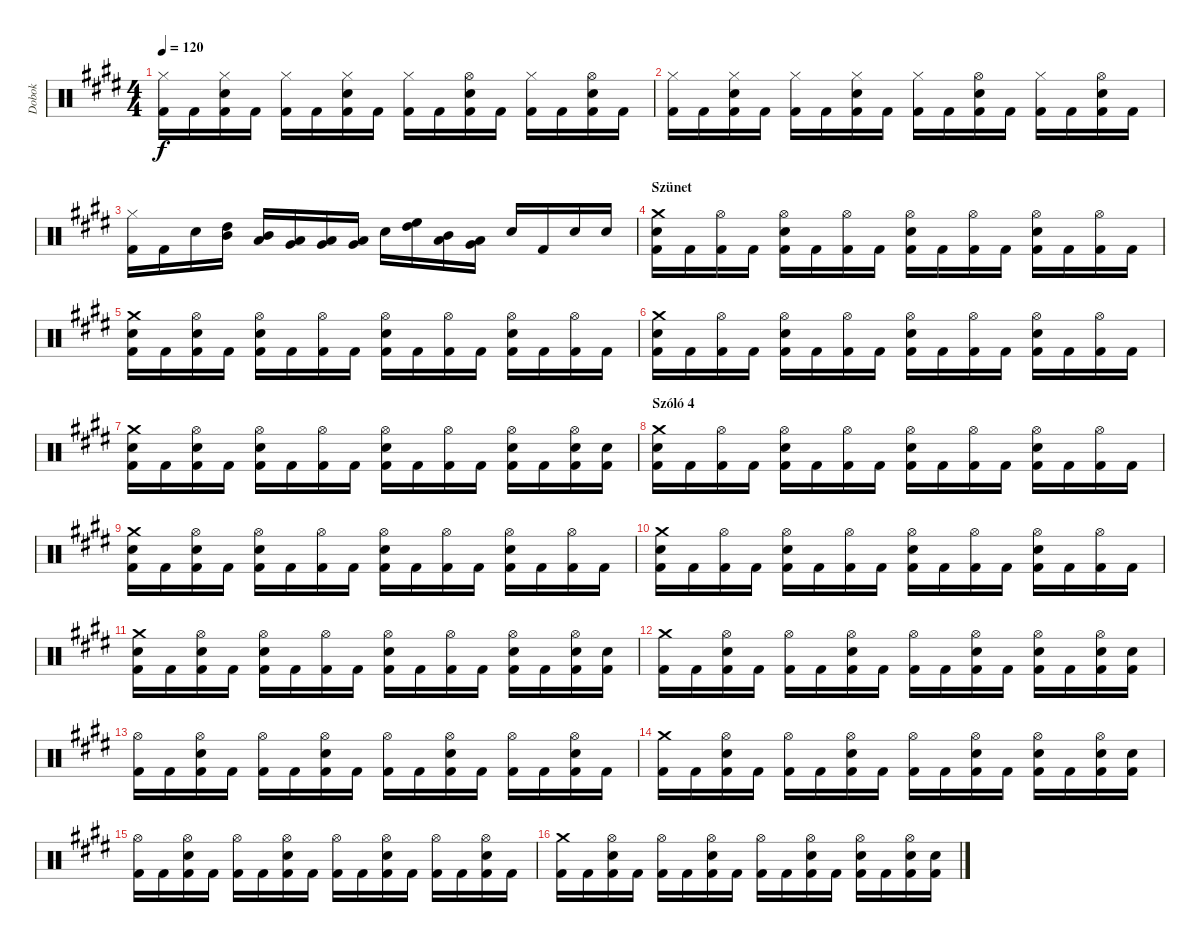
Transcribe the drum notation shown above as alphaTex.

\track ("Dobok" "Dobok") {instrument percussion}
\staff {score}
\articulation defaults
\ts (4 4)
\tempo 120
\clef neutral
\ks c#minor
("Hi-Hat (closed)" "Kick (hit) 2").16{dy f} "Kick (hit) 2".16 ("Hi-Hat (closed)" "Snare (hit) 2" "Kick (hit) 2").16 "Kick (hit) 2".16 ("Hi-Hat (closed)" "Kick (hit) 2").16 "Kick (hit) 2".16 ("Hi-Hat (closed)" "Snare (hit) 2" "Kick (hit) 2").16 "Kick (hit) 2".16 ("Hi-Hat (closed)" "Kick (hit) 2").16 "Kick (hit) 2".16 ("Hi-Hat (open)" "Snare (hit) 2" "Kick (hit) 2").16 "Kick (hit) 2".16 ("Hi-Hat (closed)" "Kick (hit) 2").16 "Kick (hit) 2".16 ("Hi-Hat (open)" "Snare (hit) 2" "Kick (hit) 2").16 "Kick (hit) 2".16 |
("Hi-Hat (closed)" "Kick (hit) 2").16 "Kick (hit) 2".16 ("Hi-Hat (closed)" "Snare (hit) 2" "Kick (hit) 2").16 "Kick (hit) 2".16 ("Hi-Hat (closed)" "Kick (hit) 2").16 "Kick (hit) 2".16 ("Hi-Hat (closed)" "Snare (hit) 2" "Kick (hit) 2").16 "Kick (hit) 2".16 ("Hi-Hat (closed)" "Kick (hit) 2").16 "Kick (hit) 2".16 ("Hi-Hat (open)" "Snare (hit) 2" "Kick (hit) 2").16 "Kick (hit) 2".16 ("Hi-Hat (closed)" "Kick (hit) 2").16 "Kick (hit) 2".16 ("Hi-Hat (open)" "Snare (hit) 2" "Kick (hit) 2").16 "Kick (hit) 2".16 |
("Hi-Hat (closed)" "Kick (hit) 2").16 "Kick (hit) 2".16 "Snare (hit) 2".16 ("High Tom (hit)" "Mid Tom (hit)").16 ("Mid Tom (hit)" "Low Tom (hit)").16 ("Low Tom (hit)" "Very Low Tom (hit)").16 ("Very Low Tom (hit)" "Low Floor Tom (hit)").16 ("Very Low Tom (hit)" "Low Floor Tom (hit)").16 "Snare (hit) 2".16 ("High Tom (hit)" "High Floor Tom (hit)").16 ("Low Tom (hit)" "Mid Tom (hit)").16 ("Very Low Tom (hit)" "Low Tom (hit)").16 "Snare (hit) 2".16 "Kick (hit) 2".16 "Snare (hit) 2".16 "Snare (hit) 2".16 |
\section ("" "Szünet")
("Crash medium (hit)" "Snare (hit) 2" "Kick (hit) 2").16 "Kick (hit) 2".16 ("Hi-Hat (open)" "Kick (hit) 2").16 "Kick (hit) 2".16 ("Hi-Hat (open)" "Snare (hit) 2" "Kick (hit) 2").16 "Kick (hit) 2".16 ("Hi-Hat (open)" "Kick (hit) 2").16 "Kick (hit) 2".16 ("Hi-Hat (open)" "Snare (hit) 2" "Kick (hit) 2").16 "Kick (hit) 2".16 ("Hi-Hat (open)" "Kick (hit) 2").16 "Kick (hit) 2".16 ("Hi-Hat (open)" "Snare (hit) 2" "Kick (hit) 2").16 "Kick (hit) 2".16 ("Hi-Hat (open)" "Kick (hit) 2").16 "Kick (hit) 2".16 |
("Crash medium (hit)" "Snare (hit) 2" "Kick (hit) 2").16 "Kick (hit) 2".16 ("Hi-Hat (open)" "Snare (hit) 2" "Kick (hit) 2").16 "Kick (hit) 2".16 ("Hi-Hat (open)" "Snare (hit) 2" "Kick (hit) 2").16 "Kick (hit) 2".16 ("Hi-Hat (open)" "Kick (hit) 2").16 "Kick (hit) 2".16 ("Hi-Hat (open)" "Snare (hit) 2" "Kick (hit) 2").16 "Kick (hit) 2".16 ("Hi-Hat (open)" "Kick (hit) 2").16 "Kick (hit) 2".16 ("Hi-Hat (open)" "Snare (hit) 2" "Kick (hit) 2").16 "Kick (hit) 2".16 ("Hi-Hat (open)" "Kick (hit) 2").16 "Kick (hit) 2".16 |
("Crash medium (hit)" "Snare (hit) 2" "Kick (hit) 2").16 "Kick (hit) 2".16 ("Hi-Hat (open)" "Kick (hit) 2").16 "Kick (hit) 2".16 ("Hi-Hat (open)" "Snare (hit) 2" "Kick (hit) 2").16 "Kick (hit) 2".16 ("Hi-Hat (open)" "Kick (hit) 2").16 "Kick (hit) 2".16 ("Hi-Hat (open)" "Snare (hit) 2" "Kick (hit) 2").16 "Kick (hit) 2".16 ("Hi-Hat (open)" "Kick (hit) 2").16 "Kick (hit) 2".16 ("Hi-Hat (open)" "Snare (hit) 2" "Kick (hit) 2").16 "Kick (hit) 2".16 ("Hi-Hat (open)" "Kick (hit) 2").16 "Kick (hit) 2".16 |
("Crash medium (hit)" "Snare (hit) 2" "Kick (hit) 2").16 "Kick (hit) 2".16 ("Hi-Hat (open)" "Snare (hit) 2" "Kick (hit) 2").16 "Kick (hit) 2".16 ("Hi-Hat (open)" "Snare (hit) 2" "Kick (hit) 2").16 "Kick (hit) 2".16 ("Hi-Hat (open)" "Kick (hit) 2").16 "Kick (hit) 2".16 ("Hi-Hat (open)" "Snare (hit) 2" "Kick (hit) 2").16 "Kick (hit) 2".16 ("Hi-Hat (open)" "Kick (hit) 2").16 "Kick (hit) 2".16 ("Hi-Hat (open)" "Snare (hit) 2" "Kick (hit) 2").16 "Kick (hit) 2".16 ("Hi-Hat (open)" "Snare (hit) 2" "Kick (hit) 2").16 ("Snare (hit) 2" "Kick (hit) 2").16 |
\section ("" "Szóló 4")
("Crash medium (hit)" "Snare (hit) 2" "Kick (hit) 2").16 "Kick (hit) 2".16 ("Hi-Hat (open)" "Kick (hit) 2").16 "Kick (hit) 2".16 ("Hi-Hat (open)" "Snare (hit) 2" "Kick (hit) 2").16 "Kick (hit) 2".16 ("Hi-Hat (open)" "Kick (hit) 2").16 "Kick (hit) 2".16 ("Hi-Hat (open)" "Snare (hit) 2" "Kick (hit) 2").16 "Kick (hit) 2".16 ("Hi-Hat (open)" "Kick (hit) 2").16 "Kick (hit) 2".16 ("Hi-Hat (open)" "Snare (hit) 2" "Kick (hit) 2").16 "Kick (hit) 2".16 ("Hi-Hat (open)" "Kick (hit) 2").16 "Kick (hit) 2".16 |
("Crash medium (hit)" "Snare (hit) 2" "Kick (hit) 2").16 "Kick (hit) 2".16 ("Hi-Hat (open)" "Snare (hit) 2" "Kick (hit) 2").16 "Kick (hit) 2".16 ("Hi-Hat (open)" "Snare (hit) 2" "Kick (hit) 2").16 "Kick (hit) 2".16 ("Hi-Hat (open)" "Kick (hit) 2").16 "Kick (hit) 2".16 ("Hi-Hat (open)" "Snare (hit) 2" "Kick (hit) 2").16 "Kick (hit) 2".16 ("Hi-Hat (open)" "Kick (hit) 2").16 "Kick (hit) 2".16 ("Hi-Hat (open)" "Snare (hit) 2" "Kick (hit) 2").16 "Kick (hit) 2".16 ("Hi-Hat (open)" "Kick (hit) 2").16 "Kick (hit) 2".16 |
("Crash medium (hit)" "Snare (hit) 2" "Kick (hit) 2").16 "Kick (hit) 2".16 ("Hi-Hat (open)" "Kick (hit) 2").16 "Kick (hit) 2".16 ("Hi-Hat (open)" "Snare (hit) 2" "Kick (hit) 2").16 "Kick (hit) 2".16 ("Hi-Hat (open)" "Kick (hit) 2").16 "Kick (hit) 2".16 ("Hi-Hat (open)" "Snare (hit) 2" "Kick (hit) 2").16 "Kick (hit) 2".16 ("Hi-Hat (open)" "Kick (hit) 2").16 "Kick (hit) 2".16 ("Hi-Hat (open)" "Snare (hit) 2" "Kick (hit) 2").16 "Kick (hit) 2".16 ("Hi-Hat (open)" "Kick (hit) 2").16 "Kick (hit) 2".16 |
("Crash medium (hit)" "Snare (hit) 2" "Kick (hit) 2").16 "Kick (hit) 2".16 ("Hi-Hat (open)" "Snare (hit) 2" "Kick (hit) 2").16 "Kick (hit) 2".16 ("Hi-Hat (open)" "Snare (hit) 2" "Kick (hit) 2").16 "Kick (hit) 2".16 ("Hi-Hat (open)" "Kick (hit) 2").16 "Kick (hit) 2".16 ("Hi-Hat (open)" "Snare (hit) 2" "Kick (hit) 2").16 "Kick (hit) 2".16 ("Hi-Hat (open)" "Kick (hit) 2").16 "Kick (hit) 2".16 ("Hi-Hat (open)" "Snare (hit) 2" "Kick (hit) 2").16 "Kick (hit) 2".16 ("Hi-Hat (open)" "Snare (hit) 2" "Kick (hit) 2").16 ("Snare (hit) 2" "Kick (hit) 2").16 |
("Crash medium (hit)" "Kick (hit) 2").16 "Kick (hit) 2".16 ("Hi-Hat (open)" "Snare (hit) 2" "Kick (hit) 2").16 "Kick (hit) 2".16 ("Hi-Hat (open)" "Kick (hit) 2").16 "Kick (hit) 2".16 ("Hi-Hat (open)" "Snare (hit) 2" "Kick (hit) 2").16 "Kick (hit) 2".16 ("Hi-Hat (open)" "Kick (hit) 2").16 "Kick (hit) 2".16 ("Hi-Hat (open)" "Snare (hit) 2" "Kick (hit) 2").16 "Kick (hit) 2".16 ("Hi-Hat (open)" "Snare (hit) 2" "Kick (hit) 2").16 "Kick (hit) 2".16 ("Hi-Hat (open)" "Snare (hit) 2" "Kick (hit) 2").16 ("Snare (hit) 2" "Kick (hit) 2").16 |
("Hi-Hat (open)" "Kick (hit) 2").16 "Kick (hit) 2".16 ("Hi-Hat (open)" "Snare (hit) 2" "Kick (hit) 2").16 "Kick (hit) 2".16 ("Hi-Hat (open)" "Kick (hit) 2").16 "Kick (hit) 2".16 ("Hi-Hat (open)" "Snare (hit) 2" "Kick (hit) 2").16 "Kick (hit) 2".16 ("Hi-Hat (open)" "Kick (hit) 2").16 "Kick (hit) 2".16 ("Hi-Hat (open)" "Snare (hit) 2" "Kick (hit) 2").16 "Kick (hit) 2".16 ("Hi-Hat (open)" "Kick (hit) 2").16 "Kick (hit) 2".16 ("Hi-Hat (open)" "Snare (hit) 2" "Kick (hit) 2").16 "Kick (hit) 2".16 |
("Crash medium (hit)" "Kick (hit) 2").16 "Kick (hit) 2".16 ("Hi-Hat (open)" "Snare (hit) 2" "Kick (hit) 2").16 "Kick (hit) 2".16 ("Hi-Hat (open)" "Kick (hit) 2").16 "Kick (hit) 2".16 ("Hi-Hat (open)" "Snare (hit) 2" "Kick (hit) 2").16 "Kick (hit) 2".16 ("Hi-Hat (open)" "Kick (hit) 2").16 "Kick (hit) 2".16 ("Hi-Hat (open)" "Snare (hit) 2" "Kick (hit) 2").16 "Kick (hit) 2".16 ("Hi-Hat (open)" "Snare (hit) 2" "Kick (hit) 2").16 "Kick (hit) 2".16 ("Hi-Hat (open)" "Snare (hit) 2" "Kick (hit) 2").16 ("Snare (hit) 2" "Kick (hit) 2").16 |
("Hi-Hat (open)" "Kick (hit) 2").16 "Kick (hit) 2".16 ("Hi-Hat (open)" "Snare (hit) 2" "Kick (hit) 2").16 "Kick (hit) 2".16 ("Hi-Hat (open)" "Kick (hit) 2").16 "Kick (hit) 2".16 ("Hi-Hat (open)" "Snare (hit) 2" "Kick (hit) 2").16 "Kick (hit) 2".16 ("Hi-Hat (open)" "Kick (hit) 2").16 "Kick (hit) 2".16 ("Hi-Hat (open)" "Snare (hit) 2" "Kick (hit) 2").16 "Kick (hit) 2".16 ("Hi-Hat (open)" "Kick (hit) 2").16 "Kick (hit) 2".16 ("Hi-Hat (open)" "Snare (hit) 2" "Kick (hit) 2").16 "Kick (hit) 2".16 |
("Crash medium (hit)" "Kick (hit) 2").16 "Kick (hit) 2".16 ("Hi-Hat (open)" "Snare (hit) 2" "Kick (hit) 2").16 "Kick (hit) 2".16 ("Hi-Hat (open)" "Kick (hit) 2").16 "Kick (hit) 2".16 ("Hi-Hat (open)" "Snare (hit) 2" "Kick (hit) 2").16 "Kick (hit) 2".16 ("Hi-Hat (open)" "Kick (hit) 2").16 "Kick (hit) 2".16 ("Hi-Hat (open)" "Snare (hit) 2" "Kick (hit) 2").16 "Kick (hit) 2".16 ("Hi-Hat (open)" "Snare (hit) 2" "Kick (hit) 2").16 "Kick (hit) 2".16 ("Hi-Hat (open)" "Snare (hit) 2" "Kick (hit) 2").16 ("Snare (hit) 2" "Kick (hit) 2").16
